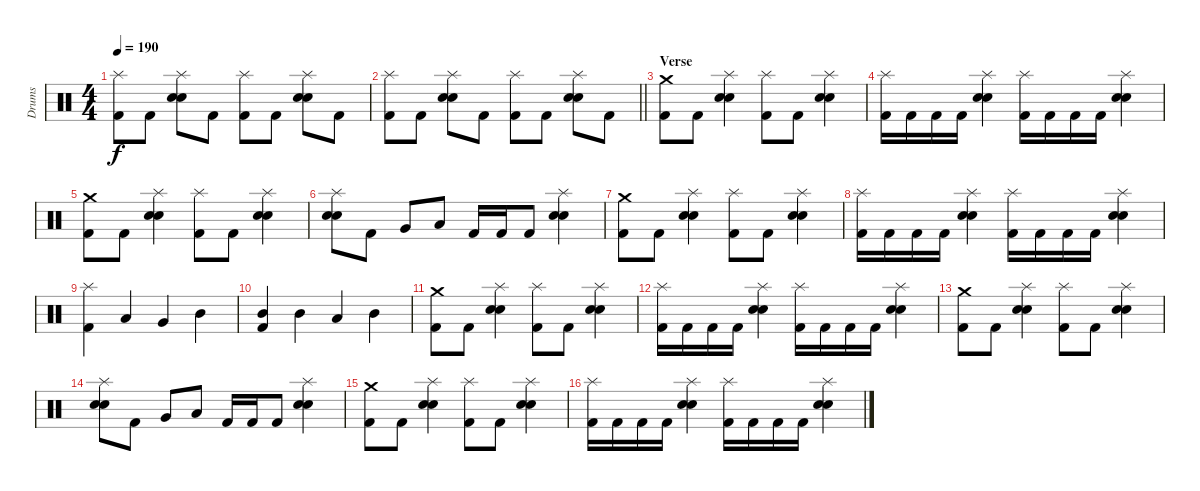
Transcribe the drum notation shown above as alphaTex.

\track ("Drums" "Drums") {instrument percussion}
\staff
\articulation defaults
\ts (4 4)
\tempo 190
\clef neutral
\ks c
("Splash (hit)" "Kick (hit) 2").8{dy f} "Kick (hit) 2".8 ("Splash (hit)" "Electric Snare (hit)" "Snare (hit) 2").8 "Kick (hit) 2".8 ("Splash (hit)" "Kick (hit) 2").8 "Kick (hit) 2".8 ("Splash (hit)" "Electric Snare (hit)" "Snare (hit) 2").8 "Kick (hit) 2".8 |
\barLineRight lightlight
("Splash (hit)" "Kick (hit) 2").8 "Kick (hit) 2".8 ("Splash (hit)" "Electric Snare (hit)" "Snare (hit) 2").8 "Kick (hit) 2".8 ("Splash (hit)" "Kick (hit) 2").8 "Kick (hit) 2".8 ("Splash (hit)" "Electric Snare (hit)" "Snare (hit) 2").8 "Kick (hit) 2".8 |
\section ("" "Verse")
("Crash medium (hit)" "Kick (hit) 2").8 "Kick (hit) 2".8 ("Splash (hit)" "Electric Snare (hit)" "Snare (hit) 2").4 ("Splash (hit)" "Kick (hit) 2").8 "Kick (hit) 2".8 ("Splash (hit)" "Electric Snare (hit)" "Snare (hit) 2").4 |
("Splash (hit)" "Kick (hit) 2").16 "Kick (hit) 2".16 "Kick (hit) 2".16 "Kick (hit) 2".16 ("Splash (hit)" "Electric Snare (hit)" "Snare (hit) 2").4 ("Splash (hit)" "Kick (hit) 2").16 "Kick (hit) 2".16 "Kick (hit) 2".16 "Kick (hit) 2".16 ("Splash (hit)" "Electric Snare (hit)" "Snare (hit) 2").4 |
("Crash medium (hit)" "Kick (hit) 2").8 "Kick (hit) 2".8 ("Splash (hit)" "Electric Snare (hit)" "Snare (hit) 2").4 ("Splash (hit)" "Kick (hit) 2").8 "Kick (hit) 2".8 ("Splash (hit)" "Electric Snare (hit)" "Snare (hit) 2").4 |
("Splash (hit)" "Electric Snare (hit)" "Snare (hit) 2").8 "Kick (hit) 2".8 "Very Low Tom (hit)".8 "Low Floor Tom (hit)".8 "Kick (hit) 2".16 "Kick (hit) 2".16 "Kick (hit) 2".8 ("Splash (hit)" "Electric Snare (hit)" "Snare (hit) 2").4 |
("Crash medium (hit)" "Kick (hit) 2").8 "Kick (hit) 2".8 ("Splash (hit)" "Electric Snare (hit)" "Snare (hit) 2").4 ("Splash (hit)" "Kick (hit) 2").8 "Kick (hit) 2".8 ("Splash (hit)" "Electric Snare (hit)" "Snare (hit) 2").4 |
("Splash (hit)" "Kick (hit) 2").16 "Kick (hit) 2".16 "Kick (hit) 2".16 "Kick (hit) 2".16 ("Splash (hit)" "Electric Snare (hit)" "Snare (hit) 2").4 ("Splash (hit)" "Kick (hit) 2").16 "Kick (hit) 2".16 "Kick (hit) 2".16 "Kick (hit) 2".16 ("Splash (hit)" "Electric Snare (hit)" "Snare (hit) 2").4 |
("Splash (hit)" "Kick (hit) 2").4 "Low Tom (hit)".4 "Very Low Tom (hit)".4 "Mid Tom (hit)".4 |
("Mid Tom (hit)" "Kick (hit) 2").4 "Mid Tom (hit)".4 "Low Tom (hit)".4 "Mid Tom (hit)".4 |
("Crash medium (hit)" "Kick (hit) 2").8 "Kick (hit) 2".8 ("Splash (hit)" "Electric Snare (hit)" "Snare (hit) 2").4 ("Splash (hit)" "Kick (hit) 2").8 "Kick (hit) 2".8 ("Splash (hit)" "Electric Snare (hit)" "Snare (hit) 2").4 |
("Splash (hit)" "Kick (hit) 2").16 "Kick (hit) 2".16 "Kick (hit) 2".16 "Kick (hit) 2".16 ("Splash (hit)" "Electric Snare (hit)" "Snare (hit) 2").4 ("Splash (hit)" "Kick (hit) 2").16 "Kick (hit) 2".16 "Kick (hit) 2".16 "Kick (hit) 2".16 ("Splash (hit)" "Electric Snare (hit)" "Snare (hit) 2").4 |
("Crash medium (hit)" "Kick (hit) 2").8 "Kick (hit) 2".8 ("Splash (hit)" "Electric Snare (hit)" "Snare (hit) 2").4 ("Splash (hit)" "Kick (hit) 2").8 "Kick (hit) 2".8 ("Splash (hit)" "Electric Snare (hit)" "Snare (hit) 2").4 |
("Splash (hit)" "Electric Snare (hit)" "Snare (hit) 2").8 "Kick (hit) 2".8 "Very Low Tom (hit)".8 "Low Floor Tom (hit)".8 "Kick (hit) 2".16 "Kick (hit) 2".16 "Kick (hit) 2".8 ("Splash (hit)" "Electric Snare (hit)" "Snare (hit) 2").4 |
("Crash medium (hit)" "Kick (hit) 2").8 "Kick (hit) 2".8 ("Splash (hit)" "Electric Snare (hit)" "Snare (hit) 2").4 ("Splash (hit)" "Kick (hit) 2").8 "Kick (hit) 2".8 ("Splash (hit)" "Electric Snare (hit)" "Snare (hit) 2").4 |
("Splash (hit)" "Kick (hit) 2").16 "Kick (hit) 2".16 "Kick (hit) 2".16 "Kick (hit) 2".16 ("Splash (hit)" "Electric Snare (hit)" "Snare (hit) 2").4 ("Splash (hit)" "Kick (hit) 2").16 "Kick (hit) 2".16 "Kick (hit) 2".16 "Kick (hit) 2".16 ("Splash (hit)" "Electric Snare (hit)" "Snare (hit) 2").4
